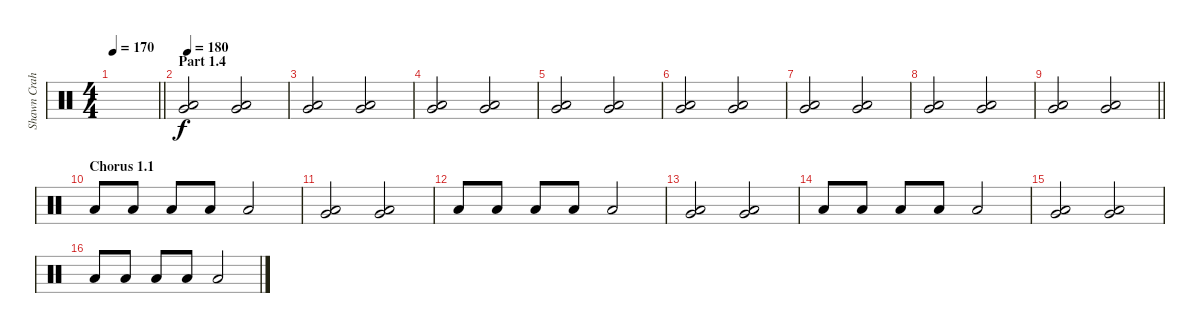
\track ("Shawn Crahan" "Shawn Crah") {instrument percussion}
\staff {score}
\articulation defaults
\ts (4 4)
\tempo 170
\clef neutral
\barLineRight lightlight
\ks c
|
\section ("" "Part 1.4")
\tempo 180
("Very Low Tom (hit)" "Low Floor Tom (hit)").2 ("Very Low Tom (hit)" "Low Floor Tom (hit)").2 |
("Very Low Tom (hit)" "Low Floor Tom (hit)").2 ("Very Low Tom (hit)" "Low Floor Tom (hit)").2 |
("Very Low Tom (hit)" "Low Floor Tom (hit)").2 ("Very Low Tom (hit)" "Low Floor Tom (hit)").2 |
("Very Low Tom (hit)" "Low Floor Tom (hit)").2 ("Very Low Tom (hit)" "Low Floor Tom (hit)").2 |
("Very Low Tom (hit)" "Low Floor Tom (hit)").2 ("Very Low Tom (hit)" "Low Floor Tom (hit)").2 |
("Very Low Tom (hit)" "Low Floor Tom (hit)").2 ("Very Low Tom (hit)" "Low Floor Tom (hit)").2 |
("Very Low Tom (hit)" "Low Floor Tom (hit)").2 ("Very Low Tom (hit)" "Low Floor Tom (hit)").2 |
\barLineRight lightlight
("Very Low Tom (hit)" "Low Floor Tom (hit)").2 ("Very Low Tom (hit)" "Low Floor Tom (hit)").2 |
\section ("" "Chorus 1.1")
"Low Floor Tom (hit)".8 "Low Floor Tom (hit)".8 "Low Floor Tom (hit)".8 "Low Floor Tom (hit)".8 "Low Floor Tom (hit)".2 |
("Very Low Tom (hit)" "Low Floor Tom (hit)").2 ("Very Low Tom (hit)" "Low Floor Tom (hit)").2 |
"Low Floor Tom (hit)".8 "Low Floor Tom (hit)".8 "Low Floor Tom (hit)".8 "Low Floor Tom (hit)".8 "Low Floor Tom (hit)".2 |
("Very Low Tom (hit)" "Low Floor Tom (hit)").2 ("Very Low Tom (hit)" "Low Floor Tom (hit)").2 |
"Low Floor Tom (hit)".8 "Low Floor Tom (hit)".8 "Low Floor Tom (hit)".8 "Low Floor Tom (hit)".8 "Low Floor Tom (hit)".2 |
("Very Low Tom (hit)" "Low Floor Tom (hit)").2 ("Very Low Tom (hit)" "Low Floor Tom (hit)").2 |
"Low Floor Tom (hit)".8 "Low Floor Tom (hit)".8 "Low Floor Tom (hit)".8 "Low Floor Tom (hit)".8 "Low Floor Tom (hit)".2
